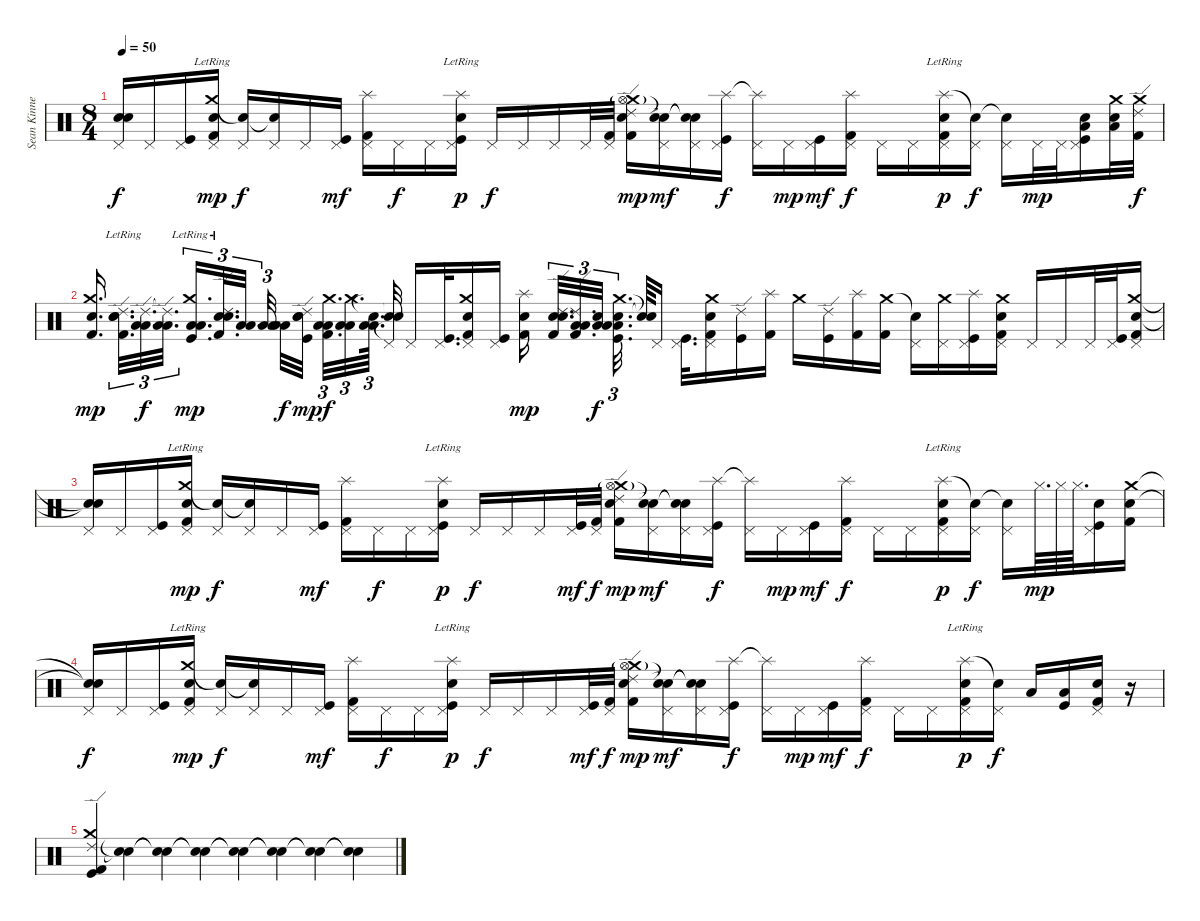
\track ("Sean Kinney" "Sean Kinne") {instrument percussion}
\staff {score}
\articulation defaults
\ts (8 4)
\tempo 50
\clef neutral
\ks c
("Snare (hit)"{t} "Snare (hit)"{t} "Pedal Hi-Hat (hit)").16{dy f} "Pedal Hi-Hat (hit)".16 ("Pedal Hi-Hat (hit)" "Kick (hit)").16 ("Crash medium (hit)"{lr} "Snare (hit) 2" "Pedal Hi-Hat (hit)" "Kick (hit) 2").16{dy mp} ("Snare (hit)"{t} "Pedal Hi-Hat (hit)").16{dy f} ("Snare (hit)"{t} "Pedal Hi-Hat (hit)").16 "Pedal Hi-Hat (hit)".16 ("Pedal Hi-Hat (hit)" "Kick (hit)").16{dy mf} ("Splash (hit)" "Pedal Hi-Hat (hit)" "Kick (hit) 2").16 "Pedal Hi-Hat (hit)".16{dy f} "Pedal Hi-Hat (hit)".16 ("Splash (hit)"{lr} "Snare (hit) 2" "Pedal Hi-Hat (hit)" "Kick (hit)").16{dy p} "Pedal Hi-Hat (hit)".16{dy f} "Pedal Hi-Hat (hit)".16 "Pedal Hi-Hat (hit)".16 "Pedal Hi-Hat (hit)".32 ("Pedal Hi-Hat (hit)" "Kick (hit) 2").32 ("Crash medium (hit)" "Ride (edge) 2" "Snare (hit) 2" "Hi-Hat (open)"{g} "Kick (hit) 2").16{dy mp} ("Snare (hit)"{t} "Snare (hit)"{t} "Pedal Hi-Hat (hit)").16{dy mf} ("Snare (hit)"{t} "Snare (hit)"{t} "Pedal Hi-Hat (hit)").16 ("Splash (hit)" "Pedal Hi-Hat (hit)" "Kick (hit)").16{dy f} ("Splash (hit)"{t} "Pedal Hi-Hat (hit)").16 "Pedal Hi-Hat (hit)".16{dy mp} ("Pedal Hi-Hat (hit)" "Kick (hit)").16{dy mf} ("Splash (hit)" "Pedal Hi-Hat (hit)" "Kick (hit) 2").16{dy f} "Pedal Hi-Hat (hit)".16 "Pedal Hi-Hat (hit)".16 ("Splash (hit)"{lr} "Snare (hit) 2" "Pedal Hi-Hat (hit)" "Kick (hit) 2").16{dy p} ("Snare (hit)"{t} "Pedal Hi-Hat (hit)").16{dy f} ("Snare (hit)"{t} "Pedal Hi-Hat (hit)").16 "Pedal Hi-Hat (hit)".32{dy mp} "Pedal Hi-Hat (hit)".32 ("Low Tom (hit)" "Snare (hit) 2" "Pedal Hi-Hat (hit)" "Kick (hit)").16 ("Crash medium (hit)" "Low Floor Tom (hit)" "Snare (hit) 2").32 ("Crash medium (hit)" "Ride (edge) 2" "Kick (hit) 2").32{dy f} |
("Crash medium (hit)" "Snare (hit) 2" "Kick (hit) 2").16{d dy mp} ("Ride (edge) 2"{lr} "Electric Snare (hit)" "Snare (hit) 2" "Kick (hit) 2").32{d tu (3 2)} ("Ride (edge) 2" "Low Floor Tom (hit)" "Low Floor Tom (hit)").32{d tu (3 2) dy f} ("Ride (edge) 2"{t} "Low Floor Tom (hit)" "Low Floor Tom (hit)").32{d tu (3 2)} ("Crash medium (hit)"{lr} "Low Tom (hit)" "Low Tom (hit)" "Kick (hit)").16{d tu (3 2) dy mp} ("Ride (edge) 2"{lr} "Electric Snare (hit)" "Snare (hit) 2" "Kick (hit) 2").32{d tu (3 2)} ("Low Floor Tom (hit)" "Low Floor Tom (hit)").32{d tu (3 2)} ("Low Floor Tom (hit)" "Low Floor Tom (hit)").32{d tu (3 2)} ("Low Tom (hit)" "Low Tom (hit)").32{dy f} ("Ride (edge) 2" "Electric Snare (hit)" "Snare (hit) 2" "Kick (hit)").32{dy mp} ("Crash medium (hit)" "Low Floor Tom (hit)" "Low Floor Tom (hit)" "Kick (hit) 2").32{d tu (3 2) dy f} ("Crash medium (hit)" "Low Floor Tom (hit)" "Low Floor Tom (hit)").32{d tu (3 2)} ("Snare (hit)"{t} "Low Tom (hit)" "Low Tom (hit)").64{d tu (3 2)} ("Snare (hit)"{t} "Snare (hit)"{t} "Pedal Hi-Hat (hit)"{t}).32 "Pedal Hi-Hat (hit)".16 ("Pedal Hi-Hat (hit)" "Kick (hit)").32{d} ("Crash medium (hit)" "Snare (hit) 2" "Pedal Hi-Hat (hit)" "Kick (hit) 2").16 ("Pedal Hi-Hat (hit)" "Kick (hit)").16 ("Splash (hit)" "Snare (hit) 2" "Kick (hit) 2").16{dy mp} ("Ride (edge) 2" "Electric Snare (hit)" "Snare (hit) 2" "Kick (hit) 2").32{d tu (3 2)} ("Ride (edge) 2" "Low Floor Tom (hit)" "Low Floor Tom (hit)" "Kick (hit) 2").32{d tu (3 2)} ("Snare (hit)"{t} "Low Floor Tom (hit)" "Low Floor Tom (hit)").32{d tu (3 2) dy f} ("Crash medium (hit)" "Snare (hit) 2" "Low Tom (hit)" "Kick (hit)").32{d tu (3 2)} ("Snare (hit)"{t} "Snare (hit)"{t}).64 "Pedal Hi-Hat (hit)".16 ("Pedal Hi-Hat (hit)" "Kick (hit)").32{d} ("Crash medium (hit)" "Snare (hit) 2" "Pedal Hi-Hat (hit)" "Kick (hit) 2").16 ("Ride (edge) 2" "Kick (hit)").16 ("Splash (hit)" "Kick (hit) 2").16 "Crash medium (hit)".16 ("Ride (edge) 2" "Kick (hit)").16 ("Splash (hit)" "Kick (hit) 2").16 ("Crash medium (hit)" "Kick (hit) 2").16 ("Snare (hit)"{t} "Pedal Hi-Hat (hit)").16 ("Crash medium (hit)" "Pedal Hi-Hat (hit)").16 ("Splash (hit)" "Pedal Hi-Hat (hit)" "Kick (hit)").16 ("Crash medium (hit)" "Snare (hit) 2" "Pedal Hi-Hat (hit)" "Kick (hit) 2").16 "Pedal Hi-Hat (hit)".16 "Pedal Hi-Hat (hit)".16 "Pedal Hi-Hat (hit)".32 ("Pedal Hi-Hat (hit)" "Kick (hit)").32 ("Crash medium (hit)" "Snare (hit) 2" "Pedal Hi-Hat (hit)" "Kick (hit) 2").16 |
("Snare (hit)"{t} "Snare (hit)"{t} "Pedal Hi-Hat (hit)").16 "Pedal Hi-Hat (hit)".16 ("Pedal Hi-Hat (hit)" "Kick (hit)").16 ("Crash medium (hit)"{lr} "Snare (hit) 2" "Pedal Hi-Hat (hit)" "Kick (hit) 2").16{dy mp} ("Snare (hit)"{t} "Pedal Hi-Hat (hit)").16{dy f} ("Snare (hit)"{t} "Pedal Hi-Hat (hit)").16 "Pedal Hi-Hat (hit)".16 ("Pedal Hi-Hat (hit)" "Kick (hit)").16{dy mf} ("Splash (hit)" "Pedal Hi-Hat (hit)" "Kick (hit) 2").16 "Pedal Hi-Hat (hit)".16{dy f} "Pedal Hi-Hat (hit)".16 ("Splash (hit)"{lr} "Snare (hit) 2" "Pedal Hi-Hat (hit)" "Kick (hit)").16{dy p} "Pedal Hi-Hat (hit)".16{dy f} "Pedal Hi-Hat (hit)".16 "Pedal Hi-Hat (hit)".16 ("Pedal Hi-Hat (hit)" "Kick (hit)").32{dy mf} ("Pedal Hi-Hat (hit)" "Kick (hit) 2").32{dy f} ("Crash medium (hit)" "Ride (edge) 2" "Snare (hit) 2" "Hi-Hat (open)"{g} "Kick (hit) 2").16{dy mp} ("Snare (hit)"{t} "Snare (hit)"{t} "Pedal Hi-Hat (hit)").16{dy mf} ("Snare (hit)"{t} "Snare (hit)"{t} "Pedal Hi-Hat (hit)").16 ("Splash (hit)" "Pedal Hi-Hat (hit)" "Kick (hit)").16{dy f} ("Splash (hit)"{t} "Pedal Hi-Hat (hit)").16 "Pedal Hi-Hat (hit)".16{dy mp} ("Pedal Hi-Hat (hit)" "Kick (hit)").16{dy mf} ("Splash (hit)" "Pedal Hi-Hat (hit)" "Kick (hit) 2").16{dy f} "Pedal Hi-Hat (hit)".16 "Pedal Hi-Hat (hit)".16 ("Splash (hit)"{lr} "Snare (hit) 2" "Pedal Hi-Hat (hit)" "Kick (hit) 2").16{dy p} ("Snare (hit)"{t} "Pedal Hi-Hat (hit)").16{dy f} ("Snare (hit)"{t} "Pedal Hi-Hat (hit)").16 "Hi-Hat (closed)".64{d dy mp} "Hi-Hat (closed)".64 "Hi-Hat (closed)".64{d} ("Snare (hit) 2" "Pedal Hi-Hat (hit)" "Kick (hit)").16 ("Crash medium (hit)" "Snare (hit) 2" "Kick (hit) 2").16 |
("Snare (hit)"{t} "Snare (hit)"{t} "Pedal Hi-Hat (hit)").16{dy f} "Pedal Hi-Hat (hit)".16 ("Pedal Hi-Hat (hit)" "Kick (hit)").16 ("Crash medium (hit)"{lr} "Snare (hit) 2" "Pedal Hi-Hat (hit)" "Kick (hit) 2").16{dy mp} ("Snare (hit)"{t} "Pedal Hi-Hat (hit)").16{dy f} ("Snare (hit)"{t} "Pedal Hi-Hat (hit)").16 "Pedal Hi-Hat (hit)".16 ("Pedal Hi-Hat (hit)" "Kick (hit)").16{dy mf} ("Splash (hit)" "Pedal Hi-Hat (hit)" "Kick (hit) 2").16 "Pedal Hi-Hat (hit)".16{dy f} "Pedal Hi-Hat (hit)".16 ("Splash (hit)"{lr} "Snare (hit) 2" "Pedal Hi-Hat (hit)" "Kick (hit)").16{dy p} "Pedal Hi-Hat (hit)".16{dy f} "Pedal Hi-Hat (hit)".16 "Pedal Hi-Hat (hit)".16 ("Pedal Hi-Hat (hit)" "Kick (hit)").32{dy mf} ("Pedal Hi-Hat (hit)" "Kick (hit) 2").32{dy f} ("Crash medium (hit)" "Ride (edge) 2" "Snare (hit) 2" "Hi-Hat (open)"{g} "Kick (hit) 2").16{dy mp} ("Snare (hit)"{t} "Snare (hit)"{t} "Pedal Hi-Hat (hit)").16{dy mf} ("Snare (hit)"{t} "Snare (hit)"{t} "Pedal Hi-Hat (hit)").16 ("Splash (hit)" "Pedal Hi-Hat (hit)" "Kick (hit)").16{dy f} ("Splash (hit)"{t} "Pedal Hi-Hat (hit)").16 "Pedal Hi-Hat (hit)".16{dy mp} ("Pedal Hi-Hat (hit)" "Kick (hit)").16{dy mf} ("Splash (hit)" "Pedal Hi-Hat (hit)" "Kick (hit) 2").16{dy f} "Pedal Hi-Hat (hit)".16 "Pedal Hi-Hat (hit)".16 ("Splash (hit)"{lr} "Snare (hit) 2" "Pedal Hi-Hat (hit)" "Kick (hit) 2").16{dy p} ("Snare (hit)"{t} "Pedal Hi-Hat (hit)").16{dy f} "Low Tom (hit)".16 ("Low Floor Tom (hit)" "Kick (hit)").16 ("Snare (hit) 2" "Pedal Hi-Hat (hit)" "Kick (hit) 2").16 r.16 |
("Ride (edge) 2" "Crash medium (hit)" "Kick (hit) 2" "Kick (hit)").4 ("Snare (hit)"{t} "Snare (hit)"{t}).4 ("Snare (hit)"{t} "Snare (hit)"{t}).4 ("Snare (hit)"{t} "Snare (hit)"{t}).4 ("Snare (hit)"{t} "Snare (hit)"{t}).4 ("Snare (hit)"{t} "Snare (hit)"{t}).4 ("Snare (hit)"{t} "Snare (hit)"{t}).4 ("Snare (hit)"{t} "Snare (hit)"{t}).4
